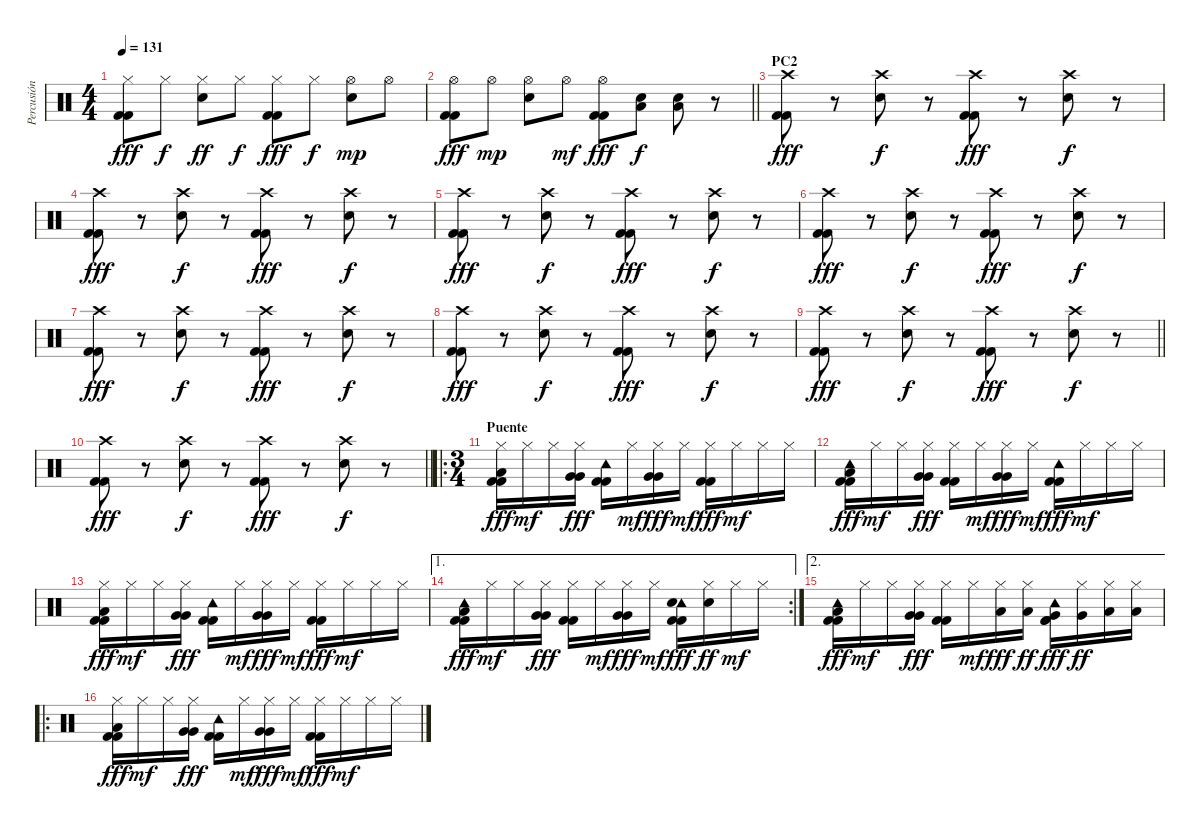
\track ("Percusión" "Percusión") {instrument percussion}
\staff {score}
\articulation defaults
\ts (4 4)
\tempo 131
\clef neutral
\ks c
("Hi-Hat (closed)" "Kick (hit) 2" "Kick (hit) 2").8{dy fff} "Hi-Hat (closed)".8{dy f} ("Hi-Hat (closed)" "Electric Snare (hit)").8{dy ff} "Hi-Hat (closed)".8{dy f} ("Hi-Hat (closed)" "Kick (hit) 2" "Kick (hit) 2").8{dy fff} "Hi-Hat (closed)".8{dy f} ("Hi-Hat (open)" "Electric Snare (hit)").8{dy mp} "Hi-Hat (open)".8 |
\barLineRight lightlight
("Hi-Hat (open)" "Kick (hit) 2" "Kick (hit) 2").8{dy fff} "Hi-Hat (open)".8{dy mp} ("Hi-Hat (open)" "Electric Snare (hit)").8 "Hi-Hat (open)".8{dy mf} ("Hi-Hat (open)" "Kick (hit) 2" "Kick (hit) 2").8{dy fff} ("Low Floor Tom (hit)" "Electric Snare (hit)").8{dy f} ("Low Floor Tom (hit)" "Electric Snare (hit)").8 r.8 |
\section ("" "PC2")
("Crash high (hit)" "Kick (hit) 2" "Kick (hit) 2").8{dy fff} r.8 ("Crash high (hit)" "Electric Snare (hit)").8{dy f} r.8 ("Crash high (hit)" "Kick (hit) 2" "Kick (hit) 2").8{dy fff} r.8 ("Crash high (hit)" "Electric Snare (hit)").8{dy f} r.8 |
("Crash high (hit)" "Kick (hit) 2" "Kick (hit) 2").8{dy fff} r.8 ("Crash high (hit)" "Electric Snare (hit)").8{dy f} r.8 ("Crash high (hit)" "Kick (hit) 2" "Kick (hit) 2").8{dy fff} r.8 ("Crash high (hit)" "Electric Snare (hit)").8{dy f} r.8 |
("Crash high (hit)" "Kick (hit) 2" "Kick (hit) 2").8{dy fff} r.8 ("Crash high (hit)" "Electric Snare (hit)").8{dy f} r.8 ("Crash high (hit)" "Kick (hit) 2" "Kick (hit) 2").8{dy fff} r.8 ("Crash high (hit)" "Electric Snare (hit)").8{dy f} r.8 |
("Crash high (hit)" "Kick (hit) 2" "Kick (hit) 2").8{dy fff} r.8 ("Crash high (hit)" "Electric Snare (hit)").8{dy f} r.8 ("Crash high (hit)" "Kick (hit) 2" "Kick (hit) 2").8{dy fff} r.8 ("Crash high (hit)" "Electric Snare (hit)").8{dy f} r.8 |
("Crash high (hit)" "Kick (hit) 2" "Kick (hit) 2").8{dy fff} r.8 ("Crash high (hit)" "Electric Snare (hit)").8{dy f} r.8 ("Crash high (hit)" "Kick (hit) 2" "Kick (hit) 2").8{dy fff} r.8 ("Crash high (hit)" "Electric Snare (hit)").8{dy f} r.8 |
("Crash high (hit)" "Kick (hit) 2" "Kick (hit) 2").8{dy fff} r.8 ("Crash high (hit)" "Electric Snare (hit)").8{dy f} r.8 ("Crash high (hit)" "Kick (hit) 2" "Kick (hit) 2").8{dy fff} r.8 ("Crash high (hit)" "Electric Snare (hit)").8{dy f} r.8 |
\barLineRight lightlight
("Crash high (hit)" "Kick (hit) 2" "Kick (hit) 2").8{dy fff} r.8 ("Crash high (hit)" "Electric Snare (hit)").8{dy f} r.8 ("Crash high (hit)" "Kick (hit) 2" "Kick (hit) 2").8{dy fff} r.8 ("Crash high (hit)" "Electric Snare (hit)").8{dy f} r.8 |
\barLineRight lightlight
("Crash high (hit)" "Kick (hit) 2" "Kick (hit) 2").8{dy fff} r.8 ("Crash high (hit)" "Electric Snare (hit)").8{dy f} r.8 ("Crash high (hit)" "Kick (hit) 2" "Kick (hit) 2").8{dy fff} r.8 ("Crash high (hit)" "Electric Snare (hit)").8{dy f} r.8 |
\ro
\ts (3 4)
\section ("" "Puente")
("Hi-Hat (closed)" "Low Tom (hit)" "Kick (hit) 2" "Kick (hit) 2").16{dy fff} "Hi-Hat (closed)".16{dy mf} "Hi-Hat (closed)".16 ("Hi-Hat (closed)" "Very Low Tom (hit)" "Very Low Tom (hit)").16{dy fff} ("Tambourine (hit)" "Kick (hit) 2" "Kick (hit) 2").16 "Hi-Hat (closed)".16{dy mf} ("Hi-Hat (closed)" "Very Low Tom (hit)" "Very Low Tom (hit)").16{dy fff} "Hi-Hat (closed)".16{dy mf} ("Hi-Hat (closed)" "Kick (hit) 2" "Kick (hit) 2").16{dy fff} "Hi-Hat (closed)".16{dy mf} "Hi-Hat (closed)".16 "Hi-Hat (closed)".16 |
("Tambourine (hit)" "Low Tom (hit)" "Kick (hit) 2" "Kick (hit) 2").16{dy fff} "Hi-Hat (closed)".16{dy mf} "Hi-Hat (closed)".16 ("Hi-Hat (closed)" "Very Low Tom (hit)" "Very Low Tom (hit)").16{dy fff} ("Hi-Hat (closed)" "Kick (hit) 2" "Kick (hit) 2").16 "Hi-Hat (closed)".16{dy mf} ("Hi-Hat (closed)" "Very Low Tom (hit)" "Very Low Tom (hit)").16{dy fff} "Hi-Hat (closed)".16{dy mf} ("Tambourine (hit)" "Kick (hit) 2" "Kick (hit) 2").16{dy fff} "Hi-Hat (closed)".16{dy mf} "Hi-Hat (closed)".16 "Hi-Hat (closed)".16 |
("Hi-Hat (closed)" "Low Tom (hit)" "Kick (hit) 2" "Kick (hit) 2").16{dy fff} "Hi-Hat (closed)".16{dy mf} "Hi-Hat (closed)".16 ("Hi-Hat (closed)" "Very Low Tom (hit)" "Very Low Tom (hit)").16{dy fff} ("Tambourine (hit)" "Kick (hit) 2" "Kick (hit) 2").16 "Hi-Hat (closed)".16{dy mf} ("Hi-Hat (closed)" "Very Low Tom (hit)" "Very Low Tom (hit)").16{dy fff} "Hi-Hat (closed)".16{dy mf} ("Hi-Hat (closed)" "Kick (hit) 2" "Kick (hit) 2").16{dy fff} "Hi-Hat (closed)".16{dy mf} "Hi-Hat (closed)".16 "Hi-Hat (closed)".16 |
\ae 1
\rc 2
("Tambourine (hit)" "Low Tom (hit)" "Kick (hit) 2" "Kick (hit) 2").16{dy fff} "Hi-Hat (closed)".16{dy mf} "Hi-Hat (closed)".16 ("Hi-Hat (closed)" "Very Low Tom (hit)" "Very Low Tom (hit)").16{dy fff} ("Hi-Hat (closed)" "Kick (hit) 2" "Kick (hit) 2").16 "Hi-Hat (closed)".16{dy mf} ("Hi-Hat (closed)" "Very Low Tom (hit)" "Very Low Tom (hit)").16{dy fff} "Hi-Hat (closed)".16{dy mf} ("Tambourine (hit)" "Electric Snare (hit)" "Kick (hit) 2" "Kick (hit) 2").16{dy fff} ("Hi-Hat (closed)" "Electric Snare (hit)").16{dy ff} "Hi-Hat (closed)".16{dy mf} "Hi-Hat (closed)".16 |
\ae 2
("Tambourine (hit)" "Low Tom (hit)" "Kick (hit) 2" "Kick (hit) 2").16{dy fff} "Hi-Hat (closed)".16{dy mf} "Hi-Hat (closed)".16 ("Hi-Hat (closed)" "Very Low Tom (hit)" "Very Low Tom (hit)").16{dy fff} ("Hi-Hat (closed)" "Kick (hit) 2" "Kick (hit) 2").16 "Hi-Hat (closed)".16{dy mf} ("Hi-Hat (closed)" "Low Floor Tom (hit)").16{dy fff} ("Hi-Hat (closed)" "Low Floor Tom (hit)").16{dy ff} ("Tambourine (hit)" "Very Low Tom (hit)" "Kick (hit) 2" "Kick (hit) 2").16{dy fff} ("Hi-Hat (closed)" "Very Low Tom (hit)").16{dy ff} ("Hi-Hat (closed)" "Low Tom (hit)").16 ("Hi-Hat (closed)" "Low Tom (hit)").16 |
\ro
("Hi-Hat (closed)" "Low Tom (hit)" "Kick (hit) 2" "Kick (hit) 2").16{dy fff} "Hi-Hat (closed)".16{dy mf} "Hi-Hat (closed)".16 ("Hi-Hat (closed)" "Very Low Tom (hit)" "Very Low Tom (hit)").16{dy fff} ("Tambourine (hit)" "Kick (hit) 2" "Kick (hit) 2").16 "Hi-Hat (closed)".16{dy mf} ("Hi-Hat (closed)" "Very Low Tom (hit)" "Very Low Tom (hit)").16{dy fff} "Hi-Hat (closed)".16{dy mf} ("Hi-Hat (closed)" "Kick (hit) 2" "Kick (hit) 2").16{dy fff} "Hi-Hat (closed)".16{dy mf} "Hi-Hat (closed)".16 "Hi-Hat (closed)".16
